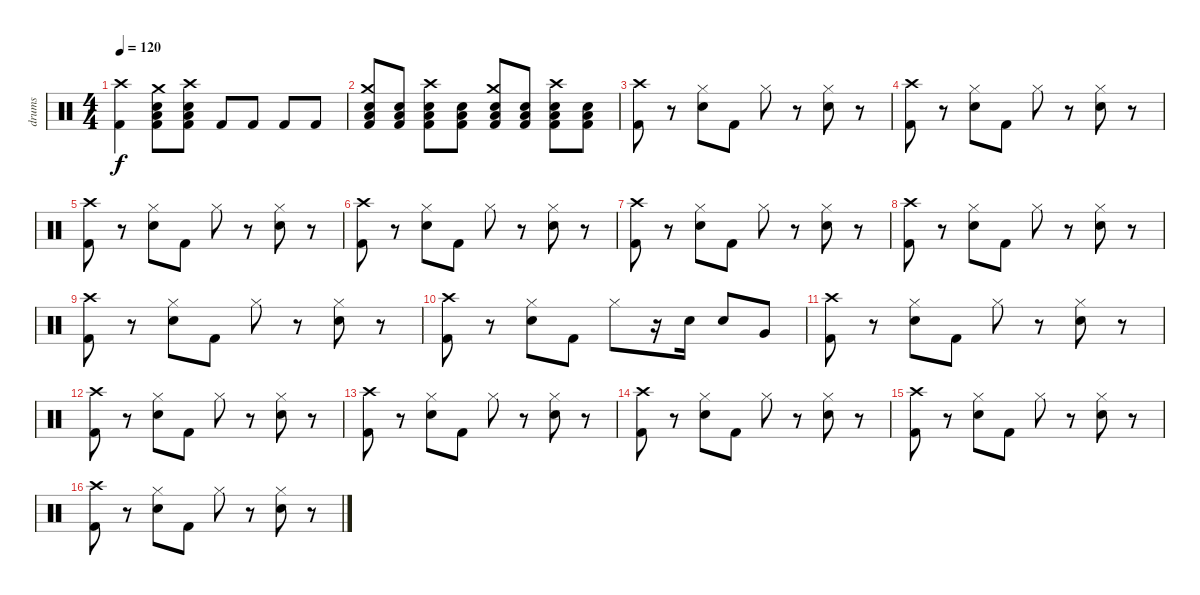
\track ("drums" "drums") {instrument percussion}
\staff {score}
\articulation defaults
\ts (4 4)
\tempo 120
\clef neutral
\ks c
("Crash high (hit)" "Kick (hit) 2").4{dy f} ("Crash medium (hit)" "Low Floor Tom (hit)" "Snare (hit) 2" "Kick (hit) 2").8 ("Crash high (hit)" "Low Floor Tom (hit)" "Snare (hit) 2" "Kick (hit) 2").8 "Kick (hit) 2".8 "Kick (hit) 2".8 "Kick (hit) 2".8 "Kick (hit) 2".8 |
("Crash medium (hit)" "Snare (hit) 2" "Low Floor Tom (hit)" "Kick (hit) 2").8 ("Snare (hit) 2" "Low Floor Tom (hit)" "Kick (hit) 2").8 ("Crash high (hit)" "Snare (hit) 2" "Low Floor Tom (hit)" "Kick (hit) 2").8 ("Snare (hit) 2" "Low Floor Tom (hit)" "Kick (hit) 2").8 ("Crash medium (hit)" "Snare (hit) 2" "Low Floor Tom (hit)" "Kick (hit) 2").8 ("Snare (hit) 2" "Low Floor Tom (hit)" "Kick (hit) 2").8 ("Crash high (hit)" "Snare (hit) 2" "Low Floor Tom (hit)" "Kick (hit) 2").8 ("Snare (hit) 2" "Low Floor Tom (hit)" "Kick (hit) 2").8 |
("Crash high (hit)" "Kick (hit) 2").8 r.8 ("Hi-Hat (closed)" "Snare (hit) 2").8 "Kick (hit) 2".8 "Hi-Hat (closed)".8 r.8 ("Hi-Hat (closed)" "Snare (hit) 2").8 r.8 |
("Crash high (hit)" "Kick (hit) 2").8 r.8 ("Hi-Hat (closed)" "Snare (hit) 2").8 "Kick (hit) 2".8 "Hi-Hat (closed)".8 r.8 ("Hi-Hat (closed)" "Snare (hit) 2").8 r.8 |
("Crash high (hit)" "Kick (hit) 2").8 r.8 ("Hi-Hat (closed)" "Snare (hit) 2").8 "Kick (hit) 2".8 "Hi-Hat (closed)".8 r.8 ("Hi-Hat (closed)" "Snare (hit) 2").8 r.8 |
("Crash high (hit)" "Kick (hit) 2").8 r.8 ("Hi-Hat (closed)" "Snare (hit) 2").8 "Kick (hit) 2".8 "Hi-Hat (closed)".8 r.8 ("Hi-Hat (closed)" "Snare (hit) 2").8 r.8 |
("Crash high (hit)" "Kick (hit) 2").8 r.8 ("Hi-Hat (closed)" "Snare (hit) 2").8 "Kick (hit) 2".8 "Hi-Hat (closed)".8 r.8 ("Hi-Hat (closed)" "Snare (hit) 2").8 r.8 |
("Crash high (hit)" "Kick (hit) 2").8 r.8 ("Hi-Hat (closed)" "Snare (hit) 2").8 "Kick (hit) 2".8 "Hi-Hat (closed)".8 r.8 ("Hi-Hat (closed)" "Snare (hit) 2").8 r.8 |
("Crash high (hit)" "Kick (hit) 2").8 r.8 ("Hi-Hat (closed)" "Snare (hit) 2").8 "Kick (hit) 2".8 "Hi-Hat (closed)".8 r.8 ("Hi-Hat (closed)" "Snare (hit) 2").8 r.8 |
("Crash high (hit)" "Kick (hit) 2").8 r.8 ("Hi-Hat (closed)" "Snare (hit) 2").8 "Kick (hit) 2".8 "Hi-Hat (closed)".8 r.16 "Snare (hit) 2".16 "Snare (hit) 2".8 "Very Low Tom (hit)".8 |
("Crash high (hit)" "Kick (hit) 2").8 r.8 ("Hi-Hat (closed)" "Snare (hit) 2").8 "Kick (hit) 2".8 "Hi-Hat (closed)".8 r.8 ("Hi-Hat (closed)" "Snare (hit) 2").8 r.8 |
("Crash high (hit)" "Kick (hit) 2").8 r.8 ("Hi-Hat (closed)" "Snare (hit) 2").8 "Kick (hit) 2".8 "Hi-Hat (closed)".8 r.8 ("Hi-Hat (closed)" "Snare (hit) 2").8 r.8 |
("Crash high (hit)" "Kick (hit) 2").8 r.8 ("Hi-Hat (closed)" "Snare (hit) 2").8 "Kick (hit) 2".8 "Hi-Hat (closed)".8 r.8 ("Hi-Hat (closed)" "Snare (hit) 2").8 r.8 |
("Crash high (hit)" "Kick (hit) 2").8 r.8 ("Hi-Hat (closed)" "Snare (hit) 2").8 "Kick (hit) 2".8 "Hi-Hat (closed)".8 r.8 ("Hi-Hat (closed)" "Snare (hit) 2").8 r.8 |
("Crash high (hit)" "Kick (hit) 2").8 r.8 ("Hi-Hat (closed)" "Snare (hit) 2").8 "Kick (hit) 2".8 "Hi-Hat (closed)".8 r.8 ("Hi-Hat (closed)" "Snare (hit) 2").8 r.8 |
("Crash high (hit)" "Kick (hit) 2").8 r.8 ("Hi-Hat (closed)" "Snare (hit) 2").8 "Kick (hit) 2".8 "Hi-Hat (closed)".8 r.8 ("Hi-Hat (closed)" "Snare (hit) 2").8 r.8
